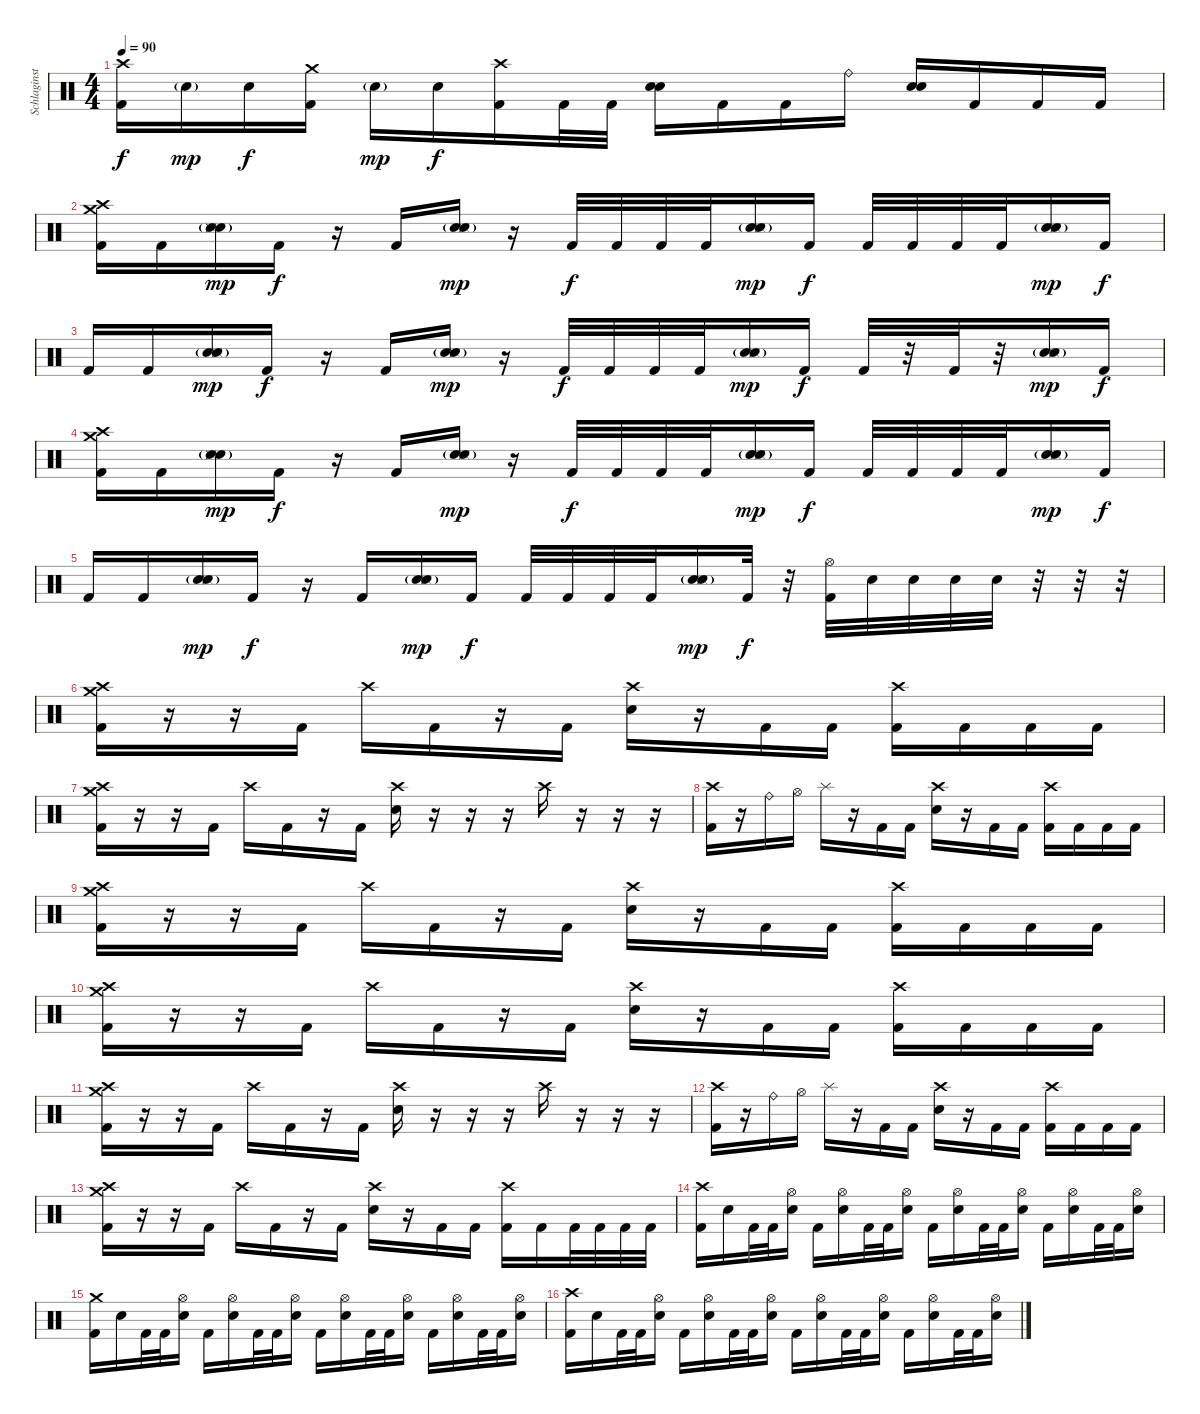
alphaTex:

\track ("Schlaginstrumente - Auswahl" "Schlaginst") {instrument percussion}
\staff {score}
\articulation defaults
\ts (4 4)
\tempo 90
\clef neutral
\ks c
("Crash high (hit)" "Kick (hit) 2").16{dy f} "Electric Snare (hit)"{g}.16{dy mp} "Electric Snare (hit)".16{dy f} ("Crash medium (hit)" "Kick (hit) 2").16 "Electric Snare (hit)"{g}.16{dy mp} "Electric Snare (hit)".16{dy f} ("Crash high (hit)" "Kick (hit) 2").16 "Kick (hit) 2".32 "Kick (hit) 2".32 ("Electric Snare (hit)" "Electric Snare (hit)").16{bd 480} "Kick (hit) 2".16 "Kick (hit) 2".16 "Ride (bell)".16 ("Electric Snare (hit)" "Electric Snare (hit)").16{bd 480} "Kick (hit) 2".16 "Kick (hit) 2".16 "Kick (hit) 2".16 |
("Crash high (hit)" "Crash medium (hit)" "Kick (hit) 2").16 "Kick (hit) 2".16 ("Hand Clap (hit)" "Snare (side stick) 3"{g} "Electric Snare (hit)").16{dy mp} "Kick (hit) 2".16{dy f} r.16 "Kick (hit) 2".16 ("Hand Clap (hit)" "Snare (side stick) 3"{g} "Electric Snare (hit)").16{dy mp} r.16 "Kick (hit) 2".32{dy f} "Kick (hit) 2".32 "Kick (hit) 2".32 "Kick (hit) 2".32 ("Hand Clap (hit)" "Snare (side stick) 3"{g} "Electric Snare (hit)").16{dy mp} "Kick (hit) 2".16{dy f} "Kick (hit) 2".32 "Kick (hit) 2".32 "Kick (hit) 2".32 "Kick (hit) 2".32 ("Hand Clap (hit)" "Snare (side stick) 3"{g} "Electric Snare (hit)").16{dy mp} "Kick (hit) 2".16{dy f} |
"Kick (hit) 2".16 "Kick (hit) 2".16 ("Hand Clap (hit)" "Snare (side stick) 3"{g} "Electric Snare (hit)").16{dy mp} "Kick (hit) 2".16{dy f} r.16 "Kick (hit) 2".16 ("Hand Clap (hit)" "Snare (side stick) 3"{g} "Electric Snare (hit)").16{dy mp} r.16 "Kick (hit) 2".32{dy f} "Kick (hit) 2".32 "Kick (hit) 2".32 "Kick (hit) 2".32 ("Hand Clap (hit)" "Snare (side stick) 3"{g} "Electric Snare (hit)").16{dy mp} "Kick (hit) 2".16{dy f} "Kick (hit) 2".32 r.32 "Kick (hit) 2".32 r.32 ("Hand Clap (hit)" "Snare (side stick) 3"{g} "Electric Snare (hit)").16{dy mp} "Kick (hit) 2".16{dy f} |
("Crash high (hit)" "Crash medium (hit)" "Kick (hit) 2").16 "Kick (hit) 2".16 ("Hand Clap (hit)" "Snare (side stick) 3"{g} "Electric Snare (hit)").16{dy mp} "Kick (hit) 2".16{dy f} r.16 "Kick (hit) 2".16 ("Hand Clap (hit)" "Snare (side stick) 3"{g} "Electric Snare (hit)").16{dy mp} r.16 "Kick (hit) 2".32{dy f} "Kick (hit) 2".32 "Kick (hit) 2".32 "Kick (hit) 2".32 ("Hand Clap (hit)" "Snare (side stick) 3"{g} "Electric Snare (hit)").16{dy mp} "Kick (hit) 2".16{dy f} "Kick (hit) 2".32 "Kick (hit) 2".32 "Kick (hit) 2".32 "Kick (hit) 2".32 ("Hand Clap (hit)" "Snare (side stick) 3"{g} "Electric Snare (hit)").16{dy mp} "Kick (hit) 2".16{dy f} |
"Kick (hit) 2".16 "Kick (hit) 2".16 ("Hand Clap (hit)" "Snare (side stick) 3"{g} "Electric Snare (hit)").16{dy mp} "Kick (hit) 2".16{dy f} r.16 "Kick (hit) 2".16 ("Hand Clap (hit)" "Snare (side stick) 3"{g} "Electric Snare (hit)").16{dy mp} "Kick (hit) 2".16{dy f} "Kick (hit) 2".32 "Kick (hit) 2".32 "Kick (hit) 2".32 "Kick (hit) 2".32 ("Hand Clap (hit)" "Snare (side stick) 3"{g} "Electric Snare (hit)").16{dy mp} "Kick (hit) 2".32{dy f} r.32 ("Hi-Hat (open)" "Kick (hit) 2").32 "Electric Snare (hit)".32 "Electric Snare (hit)".32 "Electric Snare (hit)".32 "Electric Snare (hit)".32 r.32 r.32 r.32 |
("Crash high (hit)" "Crash medium (hit)" "Kick (hit) 2").16 r.16 r.16 "Kick (hit) 2".16 "Crash high (hit)".16 "Kick (hit) 2".16 r.16 "Kick (hit) 2".16 ("Crash high (hit)" "Electric Snare (hit)").16 r.16 "Kick (hit) 2".16 "Kick (hit) 2".16 ("Crash high (hit)" "Kick (hit) 2").16 "Kick (hit) 2".16 "Kick (hit) 2".16 "Kick (hit) 2".16 |
("Crash high (hit)" "Crash medium (hit)" "Kick (hit) 2").16 r.16 r.16 "Kick (hit) 2".16 "Crash high (hit)".16 "Kick (hit) 2".16 r.16 "Kick (hit) 2".16 ("Crash high (hit)" "Electric Snare (hit)").16 r.16 r.16 r.16 "Crash high (hit)".16 r.16 r.16 r.16 |
("Crash high (hit)" "Kick (hit) 2").16 r.16 "Ride (bell)".16 "Hi-Hat (open)".16 "Splash (hit)".16 r.16 "Kick (hit) 2".16 "Kick (hit) 2".16 ("Crash high (hit)" "Electric Snare (hit)").16 r.16 "Kick (hit) 2".16 "Kick (hit) 2".16 ("Crash high (hit)" "Kick (hit) 2").16 "Kick (hit) 2".16 "Kick (hit) 2".16 "Kick (hit) 2".16 |
("Crash high (hit)" "Crash medium (hit)" "Kick (hit) 2").16 r.16 r.16 "Kick (hit) 2".16 "Crash high (hit)".16 "Kick (hit) 2".16 r.16 "Kick (hit) 2".16 ("Crash high (hit)" "Electric Snare (hit)").16 r.16 "Kick (hit) 2".16 "Kick (hit) 2".16 ("Crash high (hit)" "Kick (hit) 2").16 "Kick (hit) 2".16 "Kick (hit) 2".16 "Kick (hit) 2".16 |
("Crash high (hit)" "Crash medium (hit)" "Kick (hit) 2").16 r.16 r.16 "Kick (hit) 2".16 "Crash high (hit)".16 "Kick (hit) 2".16 r.16 "Kick (hit) 2".16 ("Crash high (hit)" "Electric Snare (hit)").16 r.16 "Kick (hit) 2".16 "Kick (hit) 2".16 ("Crash high (hit)" "Kick (hit) 2").16 "Kick (hit) 2".16 "Kick (hit) 2".16 "Kick (hit) 2".16 |
("Crash high (hit)" "Crash medium (hit)" "Kick (hit) 2").16 r.16 r.16 "Kick (hit) 2".16 "Crash high (hit)".16 "Kick (hit) 2".16 r.16 "Kick (hit) 2".16 ("Crash high (hit)" "Electric Snare (hit)").16 r.16 r.16 r.16 "Crash high (hit)".16 r.16 r.16 r.16 |
("Crash high (hit)" "Kick (hit) 2").16 r.16 "Ride (bell)".16 "Hi-Hat (open)".16 "Splash (hit)".16 r.16 "Kick (hit) 2".16 "Kick (hit) 2".16 ("Crash high (hit)" "Electric Snare (hit)").16 r.16 "Kick (hit) 2".16 "Kick (hit) 2".16 ("Crash high (hit)" "Kick (hit) 2").16 "Kick (hit) 2".16 "Kick (hit) 2".16 "Kick (hit) 2".16 |
("Crash high (hit)" "Crash medium (hit)" "Kick (hit) 2").16 r.16 r.16 "Kick (hit) 2".16 "Crash high (hit)".16 "Kick (hit) 2".16 r.16 "Kick (hit) 2".16 ("Crash high (hit)" "Electric Snare (hit)").16 r.16 "Kick (hit) 2".16 "Kick (hit) 2".16 ("Crash high (hit)" "Kick (hit) 2").16 "Kick (hit) 2".16 "Kick (hit) 2".32 "Kick (hit) 2".32 "Kick (hit) 2".32 "Kick (hit) 2".32 |
("Crash high (hit)" "Kick (hit) 2").16 "Electric Snare (hit)".16 "Kick (hit) 2".32 "Kick (hit) 2".32 ("Hi-Hat (open)" "Electric Snare (hit)").16 "Kick (hit) 2".16 ("Hi-Hat (open)" "Electric Snare (hit)").16 "Kick (hit) 2".32 "Kick (hit) 2".32 ("Hi-Hat (open)" "Electric Snare (hit)").16 "Kick (hit) 2".16 ("Hi-Hat (open)" "Electric Snare (hit)").16 "Kick (hit) 2".32 "Kick (hit) 2".32 ("Hi-Hat (open)" "Electric Snare (hit)").16 "Kick (hit) 2".16 ("Hi-Hat (open)" "Electric Snare (hit)").16 "Kick (hit) 2".32 "Kick (hit) 2".32 ("Hi-Hat (open)" "Electric Snare (hit)").16 |
("Crash medium (hit)" "Kick (hit) 2").16 "Electric Snare (hit)".16 "Kick (hit) 2".32 "Kick (hit) 2".32 ("Hi-Hat (open)" "Electric Snare (hit)").16 "Kick (hit) 2".16 ("Hi-Hat (open)" "Electric Snare (hit)").16 "Kick (hit) 2".32 "Kick (hit) 2".32 ("Hi-Hat (open)" "Electric Snare (hit)").16 "Kick (hit) 2".16 ("Hi-Hat (open)" "Electric Snare (hit)").16 "Kick (hit) 2".32 "Kick (hit) 2".32 ("Hi-Hat (open)" "Electric Snare (hit)").16 "Kick (hit) 2".16 ("Hi-Hat (open)" "Electric Snare (hit)").16 "Kick (hit) 2".32 "Kick (hit) 2".32 ("Hi-Hat (open)" "Electric Snare (hit)").16 |
("Crash high (hit)" "Kick (hit) 2").16 "Electric Snare (hit)".16 "Kick (hit) 2".32 "Kick (hit) 2".32 ("Hi-Hat (open)" "Electric Snare (hit)").16 "Kick (hit) 2".16 ("Hi-Hat (open)" "Electric Snare (hit)").16 "Kick (hit) 2".32 "Kick (hit) 2".32 ("Hi-Hat (open)" "Electric Snare (hit)").16 "Kick (hit) 2".16 ("Hi-Hat (open)" "Electric Snare (hit)").16 "Kick (hit) 2".32 "Kick (hit) 2".32 ("Hi-Hat (open)" "Electric Snare (hit)").16 "Kick (hit) 2".16 ("Hi-Hat (open)" "Electric Snare (hit)").16 "Kick (hit) 2".32 "Kick (hit) 2".32 ("Hi-Hat (open)" "Electric Snare (hit)").16
